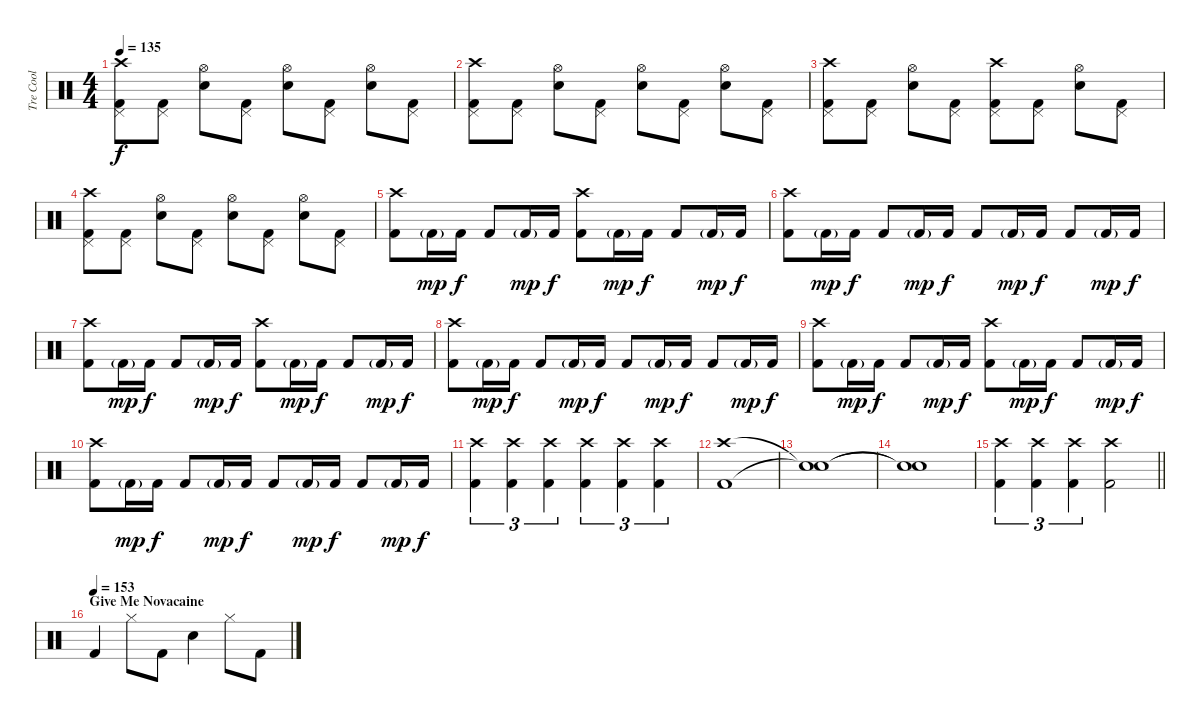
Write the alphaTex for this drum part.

\track ("Tre Cool" "Tre Cool") {instrument percussion}
\staff {score}
\articulation defaults
\ts (4 4)
\tempo 135
\clef neutral
\ks c
("Pedal Hi-Hat (hit)" "Kick (hit) 2" "Crash high (hit)").8{dy f} ("Pedal Hi-Hat (hit)" "Kick (hit) 2").8 ("Hi-Hat (open)" "Electric Snare (hit)").8 ("Pedal Hi-Hat (hit)" "Kick (hit) 2").8 ("Hi-Hat (open)" "Electric Snare (hit)").8 ("Pedal Hi-Hat (hit)" "Kick (hit) 2").8 ("Hi-Hat (open)" "Electric Snare (hit)").8 ("Pedal Hi-Hat (hit)" "Kick (hit) 2").8 |
("Pedal Hi-Hat (hit)" "Kick (hit) 2" "Crash high (hit)").8 ("Pedal Hi-Hat (hit)" "Kick (hit) 2").8 ("Hi-Hat (open)" "Electric Snare (hit)").8 ("Pedal Hi-Hat (hit)" "Kick (hit) 2").8 ("Hi-Hat (open)" "Electric Snare (hit)").8 ("Pedal Hi-Hat (hit)" "Kick (hit) 2").8 ("Hi-Hat (open)" "Electric Snare (hit)").8 ("Pedal Hi-Hat (hit)" "Kick (hit) 2").8 |
("Pedal Hi-Hat (hit)" "Kick (hit) 2" "Crash high (hit)").8 ("Pedal Hi-Hat (hit)" "Kick (hit) 2").8 ("Hi-Hat (open)" "Electric Snare (hit)").8 ("Pedal Hi-Hat (hit)" "Kick (hit) 2").8 ("Pedal Hi-Hat (hit)" "Kick (hit) 2" "Crash high (hit)").8 ("Pedal Hi-Hat (hit)" "Kick (hit) 2").8 ("Hi-Hat (open)" "Electric Snare (hit)").8 ("Pedal Hi-Hat (hit)" "Kick (hit) 2").8 |
("Pedal Hi-Hat (hit)" "Kick (hit) 2" "Crash high (hit)").8 ("Pedal Hi-Hat (hit)" "Kick (hit) 2").8 ("Hi-Hat (open)" "Electric Snare (hit)").8 ("Pedal Hi-Hat (hit)" "Kick (hit) 2").8 ("Hi-Hat (open)" "Electric Snare (hit)").8 ("Pedal Hi-Hat (hit)" "Kick (hit) 2").8 ("Hi-Hat (open)" "Electric Snare (hit)").8 ("Pedal Hi-Hat (hit)" "Kick (hit) 2").8 |
("Kick (hit) 2" "Crash high (hit)").8 "Kick (hit) 2"{g}.16{dy mp} "Kick (hit) 2".16{dy f} "Kick (hit) 2".8 "Kick (hit) 2"{g}.16{dy mp} "Kick (hit) 2".16{dy f} ("Kick (hit) 2" "Crash high (hit)").8 "Kick (hit) 2"{g}.16{dy mp} "Kick (hit) 2".16{dy f} "Kick (hit) 2".8 "Kick (hit) 2"{g}.16{dy mp} "Kick (hit) 2".16{dy f} |
("Kick (hit) 2" "Crash high (hit)").8 "Kick (hit) 2"{g}.16{dy mp} "Kick (hit) 2".16{dy f} "Kick (hit) 2".8 "Kick (hit) 2"{g}.16{dy mp} "Kick (hit) 2".16{dy f} "Kick (hit) 2".8 "Kick (hit) 2"{g}.16{dy mp} "Kick (hit) 2".16{dy f} "Kick (hit) 2".8 "Kick (hit) 2"{g}.16{dy mp} "Kick (hit) 2".16{dy f} |
("Kick (hit) 2" "Crash high (hit)").8 "Kick (hit) 2"{g}.16{dy mp} "Kick (hit) 2".16{dy f} "Kick (hit) 2".8 "Kick (hit) 2"{g}.16{dy mp} "Kick (hit) 2".16{dy f} ("Kick (hit) 2" "Crash high (hit)").8 "Kick (hit) 2"{g}.16{dy mp} "Kick (hit) 2".16{dy f} "Kick (hit) 2".8 "Kick (hit) 2"{g}.16{dy mp} "Kick (hit) 2".16{dy f} |
("Kick (hit) 2" "Crash high (hit)").8 "Kick (hit) 2"{g}.16{dy mp} "Kick (hit) 2".16{dy f} "Kick (hit) 2".8 "Kick (hit) 2"{g}.16{dy mp} "Kick (hit) 2".16{dy f} "Kick (hit) 2".8 "Kick (hit) 2"{g}.16{dy mp} "Kick (hit) 2".16{dy f} "Kick (hit) 2".8 "Kick (hit) 2"{g}.16{dy mp} "Kick (hit) 2".16{dy f} |
("Kick (hit) 2" "Crash high (hit)").8 "Kick (hit) 2"{g}.16{dy mp} "Kick (hit) 2".16{dy f} "Kick (hit) 2".8 "Kick (hit) 2"{g}.16{dy mp} "Kick (hit) 2".16{dy f} ("Kick (hit) 2" "Crash high (hit)").8 "Kick (hit) 2"{g}.16{dy mp} "Kick (hit) 2".16{dy f} "Kick (hit) 2".8 "Kick (hit) 2"{g}.16{dy mp} "Kick (hit) 2".16{dy f} |
("Kick (hit) 2" "Crash high (hit)").8 "Kick (hit) 2"{g}.16{dy mp} "Kick (hit) 2".16{dy f} "Kick (hit) 2".8 "Kick (hit) 2"{g}.16{dy mp} "Kick (hit) 2".16{dy f} "Kick (hit) 2".8 "Kick (hit) 2"{g}.16{dy mp} "Kick (hit) 2".16{dy f} "Kick (hit) 2".8 "Kick (hit) 2"{g}.16{dy mp} "Kick (hit) 2".16{dy f} |
("Kick (hit) 2" "Crash high (hit)").4{tu (3 2)} ("Kick (hit) 2" "Crash high (hit)").4{tu (3 2)} ("Kick (hit) 2" "Crash high (hit)").4{tu (3 2)} ("Kick (hit) 2" "Crash high (hit)").4{tu (3 2)} ("Kick (hit) 2" "Crash high (hit)").4{tu (3 2)} ("Kick (hit) 2" "Crash high (hit)").4{tu (3 2)} |
("Kick (hit) 2" "Crash high (hit)").1 |
("Snare (hit)"{t} "Snare (hit)"{t}).1 |
("Snare (hit)"{t} "Snare (hit)"{t}).1 |
\barLineRight lightlight
("Kick (hit) 2" "Crash high (hit)").4{tu (3 2)} ("Kick (hit) 2" "Crash high (hit)").4{tu (3 2)} ("Kick (hit) 2" "Crash high (hit)").4{tu (3 2)} ("Kick (hit) 2" "Crash high (hit)").2 |
\section ("" "Give Me Novacaine")
\tempo (153)
"Kick (hit) 2".4 "Hi-Hat (closed)".8 "Kick (hit) 2".8 "Snare (hit) 2".4 "Hi-Hat (closed)".8 "Kick (hit) 2".8
